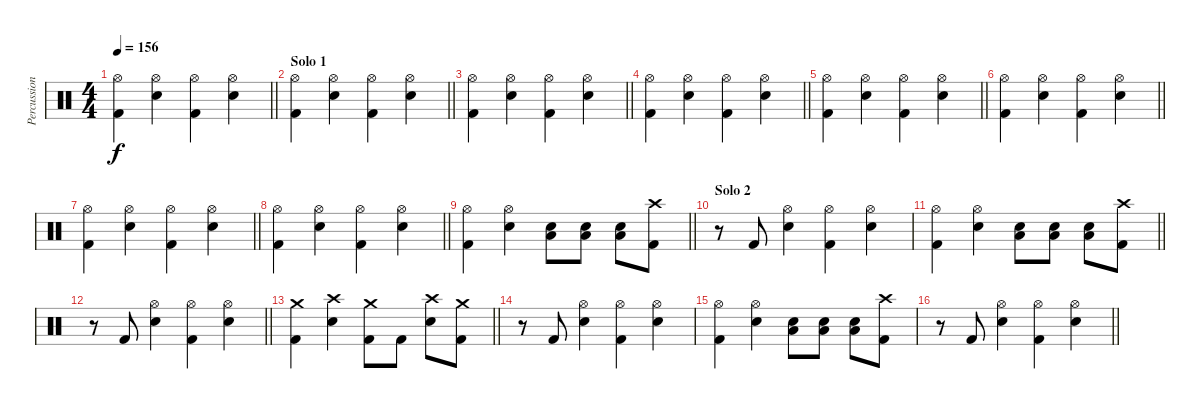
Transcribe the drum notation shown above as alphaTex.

\track ("Percussion" "Percussion") {instrument percussion}
\staff {score}
\articulation defaults
\ts (4 4)
\tempo 156
\clef neutral
\barLineRight lightlight
\ks c
("Hi-Hat (open)" "Kick (hit) 2").4{dy f} ("Hi-Hat (open)" "Snare (hit) 2").4 ("Hi-Hat (open)" "Kick (hit) 2").4 ("Hi-Hat (open)" "Snare (hit) 2").4 |
\section ("" "Solo 1")
\barLineRight lightlight
("Hi-Hat (open)" "Kick (hit) 2").4 ("Hi-Hat (open)" "Snare (hit) 2").4 ("Hi-Hat (open)" "Kick (hit) 2").4 ("Hi-Hat (open)" "Snare (hit) 2").4 |
\barLineRight lightlight
("Hi-Hat (open)" "Kick (hit) 2").4 ("Hi-Hat (open)" "Snare (hit) 2").4 ("Hi-Hat (open)" "Kick (hit) 2").4 ("Hi-Hat (open)" "Snare (hit) 2").4 |
\barLineRight lightlight
("Hi-Hat (open)" "Kick (hit) 2").4 ("Hi-Hat (open)" "Snare (hit) 2").4 ("Hi-Hat (open)" "Kick (hit) 2").4 ("Hi-Hat (open)" "Snare (hit) 2").4 |
\barLineRight lightlight
("Hi-Hat (open)" "Kick (hit) 2").4 ("Hi-Hat (open)" "Snare (hit) 2").4 ("Hi-Hat (open)" "Kick (hit) 2").4 ("Hi-Hat (open)" "Snare (hit) 2").4 |
\barLineRight lightlight
("Hi-Hat (open)" "Kick (hit) 2").4 ("Hi-Hat (open)" "Snare (hit) 2").4 ("Hi-Hat (open)" "Kick (hit) 2").4 ("Hi-Hat (open)" "Snare (hit) 2").4 |
\barLineRight lightlight
("Hi-Hat (open)" "Kick (hit) 2").4 ("Hi-Hat (open)" "Snare (hit) 2").4 ("Hi-Hat (open)" "Kick (hit) 2").4 ("Hi-Hat (open)" "Snare (hit) 2").4 |
\barLineRight lightlight
("Hi-Hat (open)" "Kick (hit) 2").4 ("Hi-Hat (open)" "Snare (hit) 2").4 ("Hi-Hat (open)" "Kick (hit) 2").4 ("Hi-Hat (open)" "Snare (hit) 2").4 |
\barLineRight lightlight
("Hi-Hat (open)" "Kick (hit) 2").4 ("Hi-Hat (open)" "Snare (hit) 2").4 ("Low Tom (hit)" "Snare (hit) 2").8 ("Low Tom (hit)" "Snare (hit) 2").8 ("Low Tom (hit)" "Snare (hit) 2").8 ("Crash high (hit)" "Kick (hit) 2").8 |
\section ("" "Solo 2")
r.8 "Kick (hit) 2".8 ("Hi-Hat (open)" "Snare (hit) 2").4 ("Hi-Hat (open)" "Kick (hit) 2").4 ("Hi-Hat (open)" "Snare (hit) 2").4 |
\barLineRight lightlight
("Hi-Hat (open)" "Kick (hit) 2").4 ("Hi-Hat (open)" "Snare (hit) 2").4 ("Low Tom (hit)" "Snare (hit) 2").8 ("Low Tom (hit)" "Snare (hit) 2").8 ("Low Tom (hit)" "Snare (hit) 2").8 ("Crash high (hit)" "Kick (hit) 2").8 |
\barLineRight lightlight
r.8 "Kick (hit) 2".8 ("Hi-Hat (open)" "Snare (hit) 2").4 ("Hi-Hat (open)" "Kick (hit) 2").4 ("Hi-Hat (open)" "Snare (hit) 2").4 |
\barLineRight lightlight
("Crash medium (hit)" "Kick (hit) 2").4 ("Crash high (hit)" "Snare (hit) 2").4 ("Crash medium (hit)" "Kick (hit) 2").8 "Kick (hit) 2".8 ("Crash high (hit)" "Snare (hit) 2").8 ("Crash medium (hit)" "Kick (hit) 2").8 |
r.8 "Kick (hit) 2".8 ("Hi-Hat (open)" "Snare (hit) 2").4 ("Hi-Hat (open)" "Kick (hit) 2").4 ("Hi-Hat (open)" "Snare (hit) 2").4 |
("Hi-Hat (open)" "Kick (hit) 2").4 ("Hi-Hat (open)" "Snare (hit) 2").4 ("Low Tom (hit)" "Snare (hit) 2").8 ("Low Tom (hit)" "Snare (hit) 2").8 ("Low Tom (hit)" "Snare (hit) 2").8 ("Crash high (hit)" "Kick (hit) 2").8 |
\barLineRight lightlight
r.8 "Kick (hit) 2".8 ("Hi-Hat (open)" "Snare (hit) 2").4 ("Hi-Hat (open)" "Kick (hit) 2").4 ("Hi-Hat (open)" "Snare (hit) 2").4
